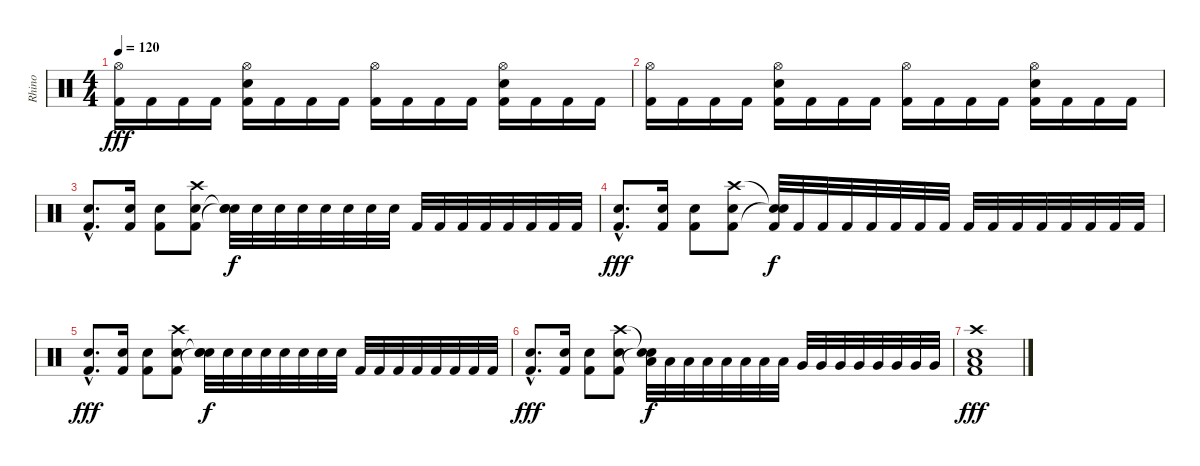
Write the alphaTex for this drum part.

\track ("Rhino" "Rhino") {instrument percussion}
\staff {score}
\articulation defaults
\ts (4 4)
\tempo 120
\clef neutral
\ks c
("Hi-Hat (open)" "Kick (hit) 2").16{dy fff} "Kick (hit) 2".16 "Kick (hit) 2".16 "Kick (hit) 2".16 ("Hi-Hat (open)" "Snare (hit) 2" "Kick (hit) 2").16 "Kick (hit) 2".16 "Kick (hit) 2".16 "Kick (hit) 2".16 ("Hi-Hat (open)" "Kick (hit) 2").16 "Kick (hit) 2".16 "Kick (hit) 2".16 "Kick (hit) 2".16 ("Hi-Hat (open)" "Snare (hit) 2" "Kick (hit) 2").16 "Kick (hit) 2".16 "Kick (hit) 2".16 "Kick (hit) 2".16 |
("Hi-Hat (open)" "Kick (hit) 2").16 "Kick (hit) 2".16 "Kick (hit) 2".16 "Kick (hit) 2".16 ("Hi-Hat (open)" "Snare (hit) 2" "Kick (hit) 2").16 "Kick (hit) 2".16 "Kick (hit) 2".16 "Kick (hit) 2".16 ("Hi-Hat (open)" "Kick (hit) 2").16 "Kick (hit) 2".16 "Kick (hit) 2".16 "Kick (hit) 2".16 ("Hi-Hat (open)" "Snare (hit) 2" "Kick (hit) 2").16 "Kick (hit) 2".16 "Kick (hit) 2".16 "Kick (hit) 2".16 |
("Snare (hit) 2"{hac} "Kick (hit) 2"{hac}).8{d} ("Snare (hit) 2" "Kick (hit) 2").16 ("Snare (hit) 2" "Kick (hit) 2").8 ("Crash high (hit)" "Snare (hit) 2" "Kick (hit) 2").8 ("Snare (hit) 2" "Snare (hit)"{t} "Snare (hit)"{t}).32{dy f} "Snare (hit) 2".32 "Snare (hit) 2".32 "Snare (hit) 2".32 "Snare (hit) 2".32 "Snare (hit) 2".32 "Snare (hit) 2".32 "Snare (hit) 2".32 "Kick (hit) 2".32 "Kick (hit) 2".32 "Kick (hit) 2".32 "Kick (hit) 2".32 "Kick (hit) 2".32 "Kick (hit) 2".32 "Kick (hit) 2".32 "Kick (hit) 2".32 |
("Snare (hit) 2"{hac} "Kick (hit) 2"{hac}).8{d dy fff} ("Snare (hit) 2" "Kick (hit) 2").16 ("Snare (hit) 2" "Kick (hit) 2").8 ("Crash high (hit)" "Snare (hit) 2" "Kick (hit) 2").8 ("Snare (hit)"{t} "Kick (hit) 2" "Snare (hit)"{t}).32{dy f} "Kick (hit) 2".32 "Kick (hit) 2".32 "Kick (hit) 2".32 "Kick (hit) 2".32 "Kick (hit) 2".32 "Kick (hit) 2".32 "Kick (hit) 2".32 "Kick (hit) 2".32 "Kick (hit) 2".32 "Kick (hit) 2".32 "Kick (hit) 2".32 "Kick (hit) 2".32 "Kick (hit) 2".32 "Kick (hit) 2".32 "Kick (hit) 2".32 |
("Snare (hit) 2"{hac} "Kick (hit) 2"{hac}).8{d dy fff} ("Snare (hit) 2" "Kick (hit) 2").16 ("Snare (hit) 2" "Kick (hit) 2").8 ("Crash high (hit)" "Snare (hit) 2" "Kick (hit) 2").8 ("Snare (hit) 2" "Snare (hit)"{t} "Snare (hit)"{t}).32{dy f} "Snare (hit) 2".32 "Snare (hit) 2".32 "Snare (hit) 2".32 "Snare (hit) 2".32 "Snare (hit) 2".32 "Snare (hit) 2".32 "Snare (hit) 2".32 "Kick (hit) 2".32 "Kick (hit) 2".32 "Kick (hit) 2".32 "Kick (hit) 2".32 "Kick (hit) 2".32 "Kick (hit) 2".32 "Kick (hit) 2".32 "Kick (hit) 2".32 |
("Snare (hit) 2"{hac} "Kick (hit) 2"{hac}).8{d dy fff} ("Snare (hit) 2" "Kick (hit) 2").16 ("Snare (hit) 2" "Kick (hit) 2").8 ("Crash high (hit)" "Snare (hit) 2" "Kick (hit) 2").8 ("Snare (hit)"{t} "Low Tom (hit)" "Snare (hit)"{t}).32{dy f} "Low Tom (hit)".32 "Low Tom (hit)".32 "Low Tom (hit)".32 "Low Tom (hit)".32 "Low Tom (hit)".32 "Low Tom (hit)".32 "Low Tom (hit)".32 "Very Low Tom (hit)".32 "Very Low Tom (hit)".32 "Very Low Tom (hit)".32 "Very Low Tom (hit)".32 "Very Low Tom (hit)".32 "Very Low Tom (hit)".32 "Very Low Tom (hit)".32 "Very Low Tom (hit)".32 |
("Crash high (hit)" "Low Floor Tom (hit)" "Snare (hit) 2" "Kick (hit) 2").1{dy fff}
